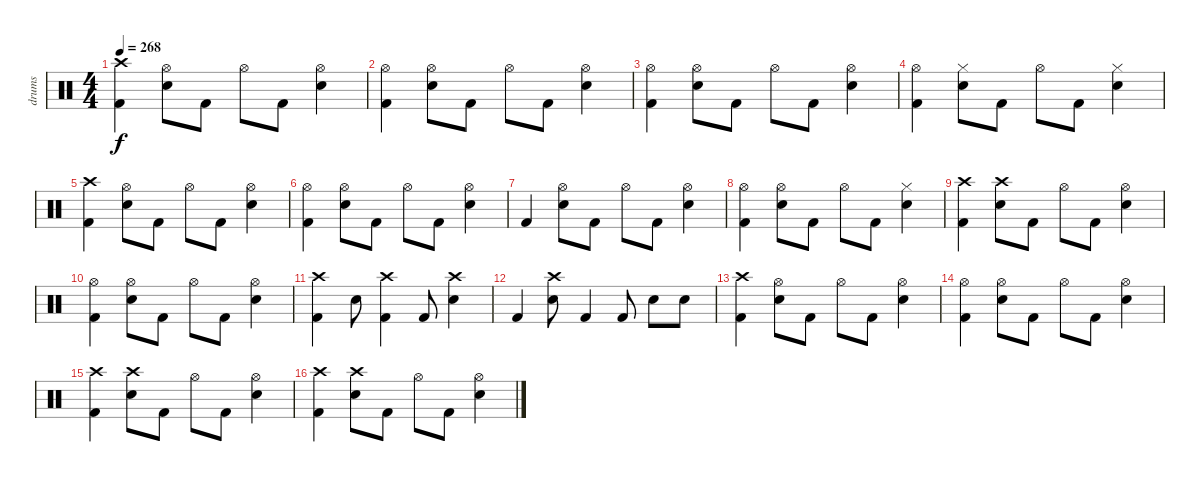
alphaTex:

\track ("drums" "drums") {instrument percussion}
\staff {score}
\articulation defaults
\ts (4 4)
\tempo 268
\clef neutral
\ks c
("Crash high (hit)" "Kick (hit) 2").4{dy f} ("Hi-Hat (open)" "Electric Snare (hit)").8 "Kick (hit) 2".8 "Hi-Hat (open)".8 "Kick (hit) 2".8 ("Hi-Hat (open)" "Electric Snare (hit)").4 |
("Hi-Hat (open)" "Kick (hit) 2").4 ("Hi-Hat (open)" "Electric Snare (hit)").8 "Kick (hit) 2".8 "Hi-Hat (open)".8 "Kick (hit) 2".8 ("Hi-Hat (open)" "Electric Snare (hit)").4 |
("Hi-Hat (open)" "Kick (hit) 2").4 ("Hi-Hat (open)" "Electric Snare (hit)").8 "Kick (hit) 2".8 "Hi-Hat (open)".8 "Kick (hit) 2".8 ("Hi-Hat (open)" "Electric Snare (hit)").4 |
("Hi-Hat (open)" "Kick (hit) 2").4 ("Hi-Hat (closed)" "Electric Snare (hit)").8 "Kick (hit) 2".8 "Hi-Hat (open)".8 "Kick (hit) 2".8 ("Hi-Hat (closed)" "Electric Snare (hit)").4 |
("Crash high (hit)" "Kick (hit) 2").4 ("Hi-Hat (open)" "Electric Snare (hit)").8 "Kick (hit) 2".8 "Hi-Hat (open)".8 "Kick (hit) 2".8 ("Hi-Hat (open)" "Electric Snare (hit)").4 |
("Hi-Hat (open)" "Kick (hit) 2").4 ("Hi-Hat (open)" "Electric Snare (hit)").8 "Kick (hit) 2".8 "Hi-Hat (open)".8 "Kick (hit) 2".8 ("Hi-Hat (open)" "Electric Snare (hit)").4 |
"Kick (hit) 2".4 ("Hi-Hat (open)" "Electric Snare (hit)").8 "Kick (hit) 2".8 "Hi-Hat (open)".8 "Kick (hit) 2".8 ("Hi-Hat (open)" "Electric Snare (hit)").4 |
("Hi-Hat (open)" "Kick (hit) 2").4 ("Hi-Hat (open)" "Electric Snare (hit)").8 "Kick (hit) 2".8 "Hi-Hat (open)".8 "Kick (hit) 2".8 ("Hi-Hat (closed)" "Electric Snare (hit)").4 |
("Crash high (hit)" "Kick (hit) 2").4 ("Crash high (hit)" "Electric Snare (hit)").8 "Kick (hit) 2".8 "Hi-Hat (open)".8 "Kick (hit) 2".8 ("Hi-Hat (open)" "Electric Snare (hit)").4 |
("Hi-Hat (open)" "Kick (hit) 2").4 ("Hi-Hat (open)" "Electric Snare (hit)").8 "Kick (hit) 2".8 "Hi-Hat (open)".8 "Kick (hit) 2".8 ("Hi-Hat (open)" "Electric Snare (hit)").4 |
("Crash high (hit)" "Kick (hit) 2").4 "Electric Snare (hit)".8 ("Crash high (hit)" "Kick (hit) 2").4 "Kick (hit) 2".8 ("Crash high (hit)" "Electric Snare (hit)").4 |
"Kick (hit) 2".4 ("Crash high (hit)" "Electric Snare (hit)").8 "Kick (hit) 2".4 "Kick (hit) 2".8 "Electric Snare (hit)".8 "Electric Snare (hit)".8 |
("Crash high (hit)" "Kick (hit) 2").4 ("Hi-Hat (open)" "Electric Snare (hit)").8 "Kick (hit) 2".8 "Hi-Hat (open)".8 "Kick (hit) 2".8 ("Hi-Hat (open)" "Electric Snare (hit)").4 |
("Hi-Hat (open)" "Kick (hit) 2").4 ("Hi-Hat (open)" "Electric Snare (hit)").8 "Kick (hit) 2".8 "Hi-Hat (open)".8 "Kick (hit) 2".8 ("Hi-Hat (open)" "Electric Snare (hit)").4 |
("Crash high (hit)" "Kick (hit) 2").4 ("Crash high (hit)" "Electric Snare (hit)").8 "Kick (hit) 2".8 "Hi-Hat (open)".8 "Kick (hit) 2".8 ("Hi-Hat (open)" "Electric Snare (hit)").4 |
("Crash high (hit)" "Kick (hit) 2").4 ("Crash high (hit)" "Electric Snare (hit)").8 "Kick (hit) 2".8 "Hi-Hat (open)".8 "Kick (hit) 2".8 ("Hi-Hat (open)" "Electric Snare (hit)").4
